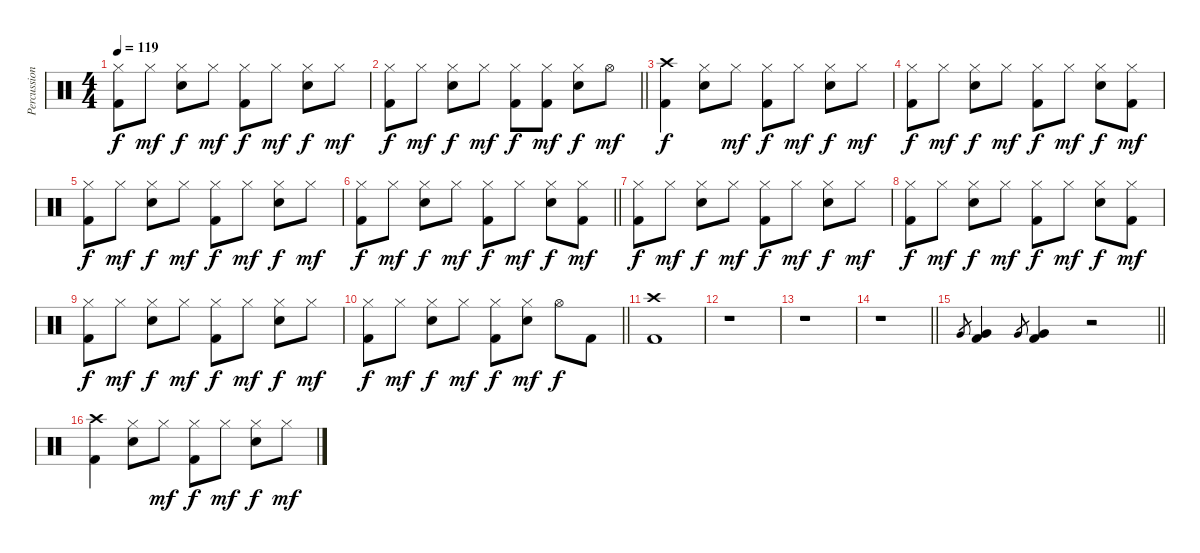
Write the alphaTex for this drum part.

\track ("Percussion" "Percussion") {instrument percussion}
\staff {score}
\articulation defaults
\ts (4 4)
\tempo 119
\clef neutral
\ks c
("Hi-Hat (closed)" "Kick (hit) 2").8{dy f} "Hi-Hat (closed)".8{dy mf} ("Hi-Hat (closed)" "Snare (hit) 2").8{dy f} "Hi-Hat (closed)".8{dy mf} ("Hi-Hat (closed)" "Kick (hit) 2").8{dy f} "Hi-Hat (closed)".8{dy mf} ("Hi-Hat (closed)" "Snare (hit) 2").8{dy f} "Hi-Hat (closed)".8{dy mf} |
\barLineRight lightlight
("Hi-Hat (closed)" "Kick (hit) 2").8{dy f} "Hi-Hat (closed)".8{dy mf} ("Hi-Hat (closed)" "Snare (hit) 2").8{dy f} "Hi-Hat (closed)".8{dy mf} ("Hi-Hat (closed)" "Kick (hit) 2").8{dy f} ("Hi-Hat (closed)" "Kick (hit) 2").8{dy mf} ("Hi-Hat (closed)" "Snare (hit) 2").8{dy f} "Hi-Hat (open)".8{dy mf} |
("Crash high (hit)" "Kick (hit) 2").4{dy f} ("Hi-Hat (closed)" "Snare (hit) 2").8 "Hi-Hat (closed)".8{dy mf} ("Hi-Hat (closed)" "Kick (hit) 2").8{dy f} "Hi-Hat (closed)".8{dy mf} ("Hi-Hat (closed)" "Snare (hit) 2").8{dy f} "Hi-Hat (closed)".8{dy mf} |
("Hi-Hat (closed)" "Kick (hit) 2").8{dy f} "Hi-Hat (closed)".8{dy mf} ("Hi-Hat (closed)" "Snare (hit) 2").8{dy f} "Hi-Hat (closed)".8{dy mf} ("Hi-Hat (closed)" "Kick (hit) 2").8{dy f} "Hi-Hat (closed)".8{dy mf} ("Hi-Hat (closed)" "Snare (hit) 2").8{dy f} ("Hi-Hat (closed)" "Kick (hit) 2").8{dy mf} |
("Hi-Hat (closed)" "Kick (hit) 2").8{dy f} "Hi-Hat (closed)".8{dy mf} ("Hi-Hat (closed)" "Snare (hit) 2").8{dy f} "Hi-Hat (closed)".8{dy mf} ("Hi-Hat (closed)" "Kick (hit) 2").8{dy f} "Hi-Hat (closed)".8{dy mf} ("Hi-Hat (closed)" "Snare (hit) 2").8{dy f} "Hi-Hat (closed)".8{dy mf} |
\barLineRight lightlight
("Hi-Hat (closed)" "Kick (hit) 2").8{dy f} "Hi-Hat (closed)".8{dy mf} ("Hi-Hat (closed)" "Snare (hit) 2").8{dy f} "Hi-Hat (closed)".8{dy mf} ("Hi-Hat (closed)" "Kick (hit) 2").8{dy f} "Hi-Hat (closed)".8{dy mf} ("Hi-Hat (closed)" "Snare (hit) 2").8{dy f} ("Hi-Hat (closed)" "Kick (hit) 2").8{dy mf} |
("Hi-Hat (closed)" "Kick (hit) 2").8{dy f} "Hi-Hat (closed)".8{dy mf} ("Hi-Hat (closed)" "Snare (hit) 2").8{dy f} "Hi-Hat (closed)".8{dy mf} ("Hi-Hat (closed)" "Kick (hit) 2").8{dy f} "Hi-Hat (closed)".8{dy mf} ("Hi-Hat (closed)" "Snare (hit) 2").8{dy f} "Hi-Hat (closed)".8{dy mf} |
("Hi-Hat (closed)" "Kick (hit) 2").8{dy f} "Hi-Hat (closed)".8{dy mf} ("Hi-Hat (closed)" "Snare (hit) 2").8{dy f} "Hi-Hat (closed)".8{dy mf} ("Hi-Hat (closed)" "Kick (hit) 2").8{dy f} "Hi-Hat (closed)".8{dy mf} ("Hi-Hat (closed)" "Snare (hit) 2").8{dy f} ("Hi-Hat (closed)" "Kick (hit) 2").8{dy mf} |
("Hi-Hat (closed)" "Kick (hit) 2").8{dy f} "Hi-Hat (closed)".8{dy mf} ("Hi-Hat (closed)" "Snare (hit) 2").8{dy f} "Hi-Hat (closed)".8{dy mf} ("Hi-Hat (closed)" "Kick (hit) 2").8{dy f} "Hi-Hat (closed)".8{dy mf} ("Hi-Hat (closed)" "Snare (hit) 2").8{dy f} "Hi-Hat (closed)".8{dy mf} |
\barLineRight lightlight
("Hi-Hat (closed)" "Kick (hit) 2").8{dy f} "Hi-Hat (closed)".8{dy mf} ("Hi-Hat (closed)" "Snare (hit) 2").8{dy f} "Hi-Hat (closed)".8{dy mf} ("Hi-Hat (closed)" "Kick (hit) 2").8{dy f} ("Hi-Hat (closed)" "Snare (hit) 2").8{dy mf} "Hi-Hat (open)".8{dy f} "Kick (hit) 2".8 |
("Crash high (hit)" "Kick (hit) 2").1 |
r.1 |
r.1 |
\barLineRight lightlight
r.1 |
\barLineRight lightlight "Very Low Tom (hit)".8{gr}
("Very Low Tom (hit)" "Kick (hit) 2").4 "Very Low Tom (hit)".8{gr} ("Very Low Tom (hit)" "Kick (hit) 2").4 r.2 |
("Crash high (hit)" "Kick (hit) 2").4 ("Hi-Hat (closed)" "Snare (hit) 2").8 "Hi-Hat (closed)".8{dy mf} ("Hi-Hat (closed)" "Kick (hit) 2").8{dy f} "Hi-Hat (closed)".8{dy mf} ("Hi-Hat (closed)" "Snare (hit) 2").8{dy f} "Hi-Hat (closed)".8{dy mf}
